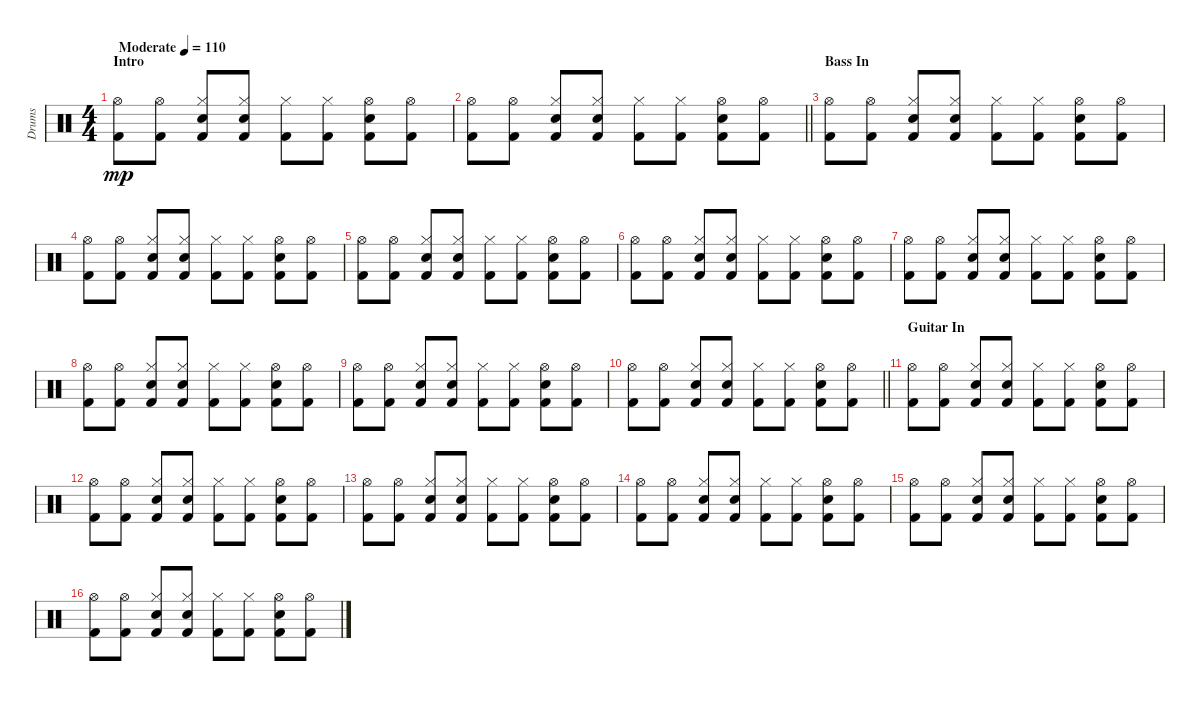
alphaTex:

\track ("Drums" "Drums") {instrument percussion}
\staff {score}
\articulation defaults
\ts (4 4)
\section ("" "Intro")
\tempo (110 "Moderate")
\clef neutral
\ks c
("Hi-Hat (open)" "Kick (hit) 2").8{dy mp} ("Hi-Hat (open)" "Kick (hit) 2").8 ("Hi-Hat (closed)" "Electric Snare (hit)" "Kick (hit) 2").8 ("Hi-Hat (closed)" "Electric Snare (hit)" "Kick (hit) 2").8 ("Hi-Hat (closed)" "Kick (hit) 2").8 ("Hi-Hat (closed)" "Kick (hit) 2").8 ("Hi-Hat (open)" "Electric Snare (hit)" "Kick (hit) 2").8 ("Hi-Hat (open)" "Kick (hit) 2").8 |
\barLineRight lightlight
("Hi-Hat (open)" "Kick (hit) 2").8 ("Hi-Hat (open)" "Kick (hit) 2").8 ("Hi-Hat (closed)" "Electric Snare (hit)" "Kick (hit) 2").8 ("Hi-Hat (closed)" "Electric Snare (hit)" "Kick (hit) 2").8 ("Hi-Hat (closed)" "Kick (hit) 2").8 ("Hi-Hat (closed)" "Kick (hit) 2").8 ("Hi-Hat (open)" "Electric Snare (hit)" "Kick (hit) 2").8 ("Hi-Hat (open)" "Kick (hit) 2").8 |
\section ("" "Bass In")
("Hi-Hat (open)" "Kick (hit) 2").8 ("Hi-Hat (open)" "Kick (hit) 2").8 ("Hi-Hat (closed)" "Electric Snare (hit)" "Kick (hit) 2").8 ("Hi-Hat (closed)" "Electric Snare (hit)" "Kick (hit) 2").8 ("Hi-Hat (closed)" "Kick (hit) 2").8 ("Hi-Hat (closed)" "Kick (hit) 2").8 ("Hi-Hat (open)" "Electric Snare (hit)" "Kick (hit) 2").8 ("Hi-Hat (open)" "Kick (hit) 2").8 |
("Hi-Hat (open)" "Kick (hit) 2").8 ("Hi-Hat (open)" "Kick (hit) 2").8 ("Hi-Hat (closed)" "Electric Snare (hit)" "Kick (hit) 2").8 ("Hi-Hat (closed)" "Electric Snare (hit)" "Kick (hit) 2").8 ("Hi-Hat (closed)" "Kick (hit) 2").8 ("Hi-Hat (closed)" "Kick (hit) 2").8 ("Hi-Hat (open)" "Electric Snare (hit)" "Kick (hit) 2").8 ("Hi-Hat (open)" "Kick (hit) 2").8 |
("Hi-Hat (open)" "Kick (hit) 2").8 ("Hi-Hat (open)" "Kick (hit) 2").8 ("Hi-Hat (closed)" "Electric Snare (hit)" "Kick (hit) 2").8 ("Hi-Hat (closed)" "Electric Snare (hit)" "Kick (hit) 2").8 ("Hi-Hat (closed)" "Kick (hit) 2").8 ("Hi-Hat (closed)" "Kick (hit) 2").8 ("Hi-Hat (open)" "Electric Snare (hit)" "Kick (hit) 2").8 ("Hi-Hat (open)" "Kick (hit) 2").8 |
("Hi-Hat (open)" "Kick (hit) 2").8 ("Hi-Hat (open)" "Kick (hit) 2").8 ("Hi-Hat (closed)" "Electric Snare (hit)" "Kick (hit) 2").8 ("Hi-Hat (closed)" "Electric Snare (hit)" "Kick (hit) 2").8 ("Hi-Hat (closed)" "Kick (hit) 2").8 ("Hi-Hat (closed)" "Kick (hit) 2").8 ("Hi-Hat (open)" "Electric Snare (hit)" "Kick (hit) 2").8 ("Hi-Hat (open)" "Kick (hit) 2").8 |
("Hi-Hat (open)" "Kick (hit) 2").8 ("Hi-Hat (open)" "Kick (hit) 2").8 ("Hi-Hat (closed)" "Electric Snare (hit)" "Kick (hit) 2").8 ("Hi-Hat (closed)" "Electric Snare (hit)" "Kick (hit) 2").8 ("Hi-Hat (closed)" "Kick (hit) 2").8 ("Hi-Hat (closed)" "Kick (hit) 2").8 ("Hi-Hat (open)" "Electric Snare (hit)" "Kick (hit) 2").8 ("Hi-Hat (open)" "Kick (hit) 2").8 |
("Hi-Hat (open)" "Kick (hit) 2").8 ("Hi-Hat (open)" "Kick (hit) 2").8 ("Hi-Hat (closed)" "Electric Snare (hit)" "Kick (hit) 2").8 ("Hi-Hat (closed)" "Electric Snare (hit)" "Kick (hit) 2").8 ("Hi-Hat (closed)" "Kick (hit) 2").8 ("Hi-Hat (closed)" "Kick (hit) 2").8 ("Hi-Hat (open)" "Electric Snare (hit)" "Kick (hit) 2").8 ("Hi-Hat (open)" "Kick (hit) 2").8 |
("Hi-Hat (open)" "Kick (hit) 2").8 ("Hi-Hat (open)" "Kick (hit) 2").8 ("Hi-Hat (closed)" "Electric Snare (hit)" "Kick (hit) 2").8 ("Hi-Hat (closed)" "Electric Snare (hit)" "Kick (hit) 2").8 ("Hi-Hat (closed)" "Kick (hit) 2").8 ("Hi-Hat (closed)" "Kick (hit) 2").8 ("Hi-Hat (open)" "Electric Snare (hit)" "Kick (hit) 2").8 ("Hi-Hat (open)" "Kick (hit) 2").8 |
\barLineRight lightlight
("Hi-Hat (open)" "Kick (hit) 2").8 ("Hi-Hat (open)" "Kick (hit) 2").8 ("Hi-Hat (closed)" "Electric Snare (hit)" "Kick (hit) 2").8 ("Hi-Hat (closed)" "Electric Snare (hit)" "Kick (hit) 2").8 ("Hi-Hat (closed)" "Kick (hit) 2").8 ("Hi-Hat (closed)" "Kick (hit) 2").8 ("Hi-Hat (open)" "Electric Snare (hit)" "Kick (hit) 2").8 ("Hi-Hat (open)" "Kick (hit) 2").8 |
\section ("" "Guitar In")
("Hi-Hat (open)" "Kick (hit) 2").8 ("Hi-Hat (open)" "Kick (hit) 2").8 ("Hi-Hat (closed)" "Electric Snare (hit)" "Kick (hit) 2").8 ("Hi-Hat (closed)" "Electric Snare (hit)" "Kick (hit) 2").8 ("Hi-Hat (closed)" "Kick (hit) 2").8 ("Hi-Hat (closed)" "Kick (hit) 2").8 ("Hi-Hat (open)" "Electric Snare (hit)" "Kick (hit) 2").8 ("Hi-Hat (open)" "Kick (hit) 2").8 |
("Hi-Hat (open)" "Kick (hit) 2").8 ("Hi-Hat (open)" "Kick (hit) 2").8 ("Hi-Hat (closed)" "Electric Snare (hit)" "Kick (hit) 2").8 ("Hi-Hat (closed)" "Electric Snare (hit)" "Kick (hit) 2").8 ("Hi-Hat (closed)" "Kick (hit) 2").8 ("Hi-Hat (closed)" "Kick (hit) 2").8 ("Hi-Hat (open)" "Electric Snare (hit)" "Kick (hit) 2").8 ("Hi-Hat (open)" "Kick (hit) 2").8 |
("Hi-Hat (open)" "Kick (hit) 2").8 ("Hi-Hat (open)" "Kick (hit) 2").8 ("Hi-Hat (closed)" "Electric Snare (hit)" "Kick (hit) 2").8 ("Hi-Hat (closed)" "Electric Snare (hit)" "Kick (hit) 2").8 ("Hi-Hat (closed)" "Kick (hit) 2").8 ("Hi-Hat (closed)" "Kick (hit) 2").8 ("Hi-Hat (open)" "Electric Snare (hit)" "Kick (hit) 2").8 ("Hi-Hat (open)" "Kick (hit) 2").8 |
("Hi-Hat (open)" "Kick (hit) 2").8 ("Hi-Hat (open)" "Kick (hit) 2").8 ("Hi-Hat (closed)" "Electric Snare (hit)" "Kick (hit) 2").8 ("Hi-Hat (closed)" "Electric Snare (hit)" "Kick (hit) 2").8 ("Hi-Hat (closed)" "Kick (hit) 2").8 ("Hi-Hat (closed)" "Kick (hit) 2").8 ("Hi-Hat (open)" "Electric Snare (hit)" "Kick (hit) 2").8 ("Hi-Hat (open)" "Kick (hit) 2").8 |
("Hi-Hat (open)" "Kick (hit) 2").8 ("Hi-Hat (open)" "Kick (hit) 2").8 ("Hi-Hat (closed)" "Electric Snare (hit)" "Kick (hit) 2").8 ("Hi-Hat (closed)" "Electric Snare (hit)" "Kick (hit) 2").8 ("Hi-Hat (closed)" "Kick (hit) 2").8 ("Hi-Hat (closed)" "Kick (hit) 2").8 ("Hi-Hat (open)" "Electric Snare (hit)" "Kick (hit) 2").8 ("Hi-Hat (open)" "Kick (hit) 2").8 |
("Hi-Hat (open)" "Kick (hit) 2").8 ("Hi-Hat (open)" "Kick (hit) 2").8 ("Hi-Hat (closed)" "Electric Snare (hit)" "Kick (hit) 2").8 ("Hi-Hat (closed)" "Electric Snare (hit)" "Kick (hit) 2").8 ("Hi-Hat (closed)" "Kick (hit) 2").8 ("Hi-Hat (closed)" "Kick (hit) 2").8 ("Hi-Hat (open)" "Electric Snare (hit)" "Kick (hit) 2").8 ("Hi-Hat (open)" "Kick (hit) 2").8
